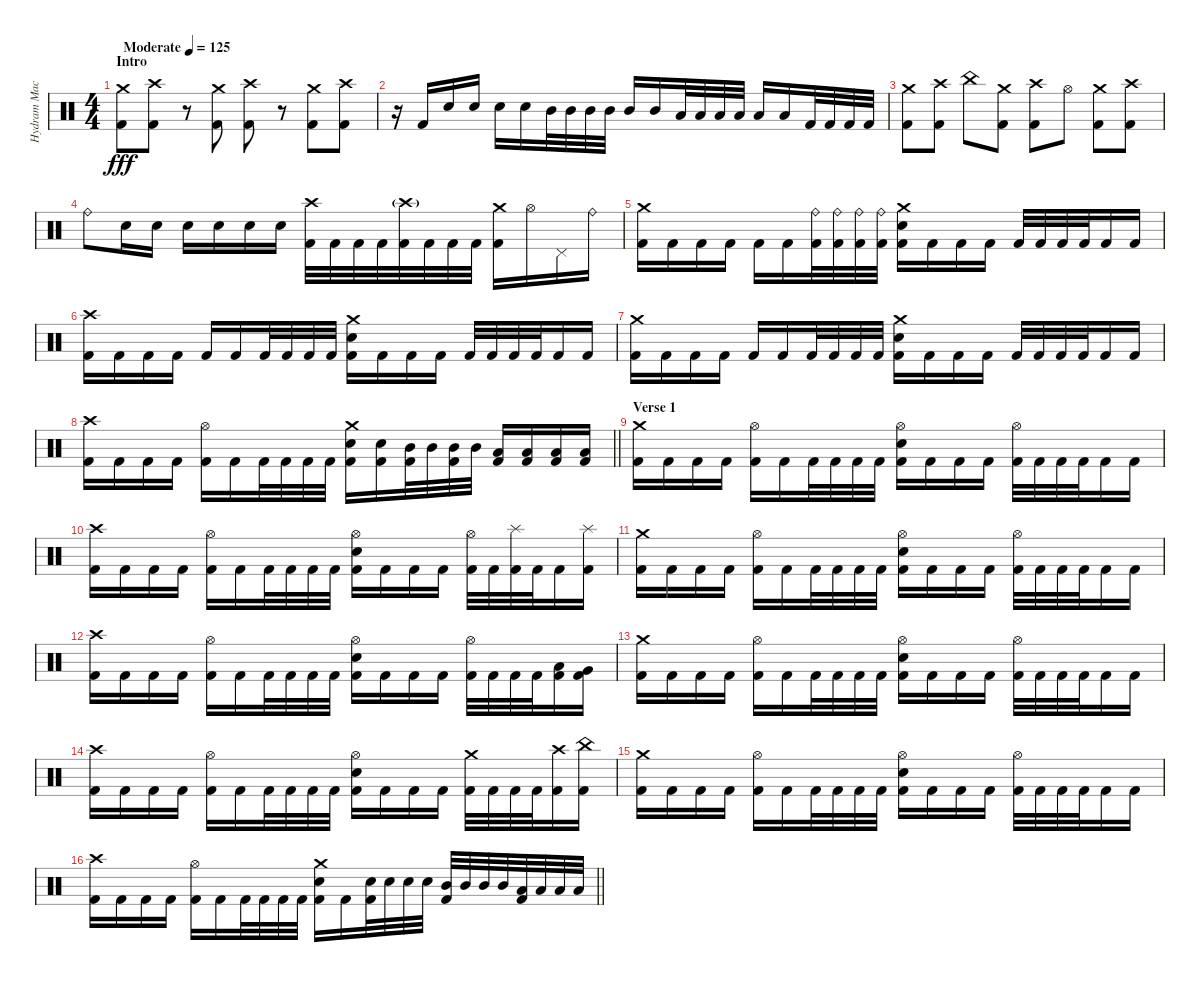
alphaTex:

\track ("Hydram Machine" "Hydram Mac") {instrument percussion}
\staff {score}
\articulation defaults
\ts (4 4)
\section ("" "Intro")
\tempo (125 "Moderate")
\clef neutral
\ks c
("Crash medium (hit)" "Kick (hit) 2").8{dy fff} ("Crash high (hit)" "Kick (hit) 2").8 r.8 ("Crash medium (hit)" "Kick (hit) 2").8 ("Crash high (hit)" "Kick (hit) 2").8 r.8 ("Crash medium (hit)" "Kick (hit) 2").8 ("Crash high (hit)" "Kick (hit) 2").8 |
r.16 "Kick (hit) 2".16 "Electric Snare (hit)".16 "Electric Snare (hit)".16 "Electric Snare (hit)".16 "Electric Snare (hit)".16 "Mid Tom (hit)".32 "Mid Tom (hit)".32 "Mid Tom (hit)".32 "Mid Tom (hit)".32 "Mid Tom (hit)".16 "Mid Tom (hit)".16 "Low Tom (hit)".32 "Low Tom (hit)".32 "Low Tom (hit)".32 "Low Tom (hit)".32 "Low Tom (hit)".16 "Low Tom (hit)".16 "Kick (hit) 2".32 "Kick (hit) 2".32 "Kick (hit) 2".32 "Kick (hit) 2".32 |
("Crash medium (hit)" "Kick (hit) 2").8 ("Crash high (hit)" "Kick (hit) 2").8 "China (hit)".8 ("Crash medium (hit)" "Kick (hit) 2").8 ("Crash high (hit)" "Kick (hit) 2").8 "Hi-Hat (open)".8 ("Crash medium (hit)" "Kick (hit) 2").8 ("Crash high (hit)" "Kick (hit) 2").8 |
"Ride (bell)".8 "Electric Snare (hit)".16 "Electric Snare (hit)".16 "Electric Snare (hit)".16 "Electric Snare (hit)".16 "Electric Snare (hit)".16 "Electric Snare (hit)".16 ("Crash high (hit)" "Kick (hit) 2").32 "Kick (hit) 2".32 "Kick (hit) 2".32 "Kick (hit) 2".32 ("Crash high (hit)"{g} "Kick (hit) 2").32 "Kick (hit) 2".32 "Kick (hit) 2".32 "Kick (hit) 2".32 ("Crash medium (hit)" "Kick (hit) 2").16 "Hi-Hat (open)".16 "Pedal Hi-Hat (hit)".16 "Ride (bell)".16 |
("Crash medium (hit)" "Kick (hit) 2").16 "Kick (hit) 2".16 "Kick (hit) 2".16 "Kick (hit) 2".16 "Kick (hit) 2".16 "Kick (hit) 2".16 ("Ride (bell)" "Kick (hit) 2").32 ("Ride (bell)" "Kick (hit) 2").32 ("Ride (bell)" "Kick (hit) 2").32 ("Ride (bell)" "Kick (hit) 2").32 ("Crash medium (hit)" "Electric Snare (hit)" "Kick (hit) 2").16 "Kick (hit) 2".16 "Kick (hit) 2".16 "Kick (hit) 2".16 "Kick (hit) 2".32 "Kick (hit) 2".32 "Kick (hit) 2".32 "Kick (hit) 2".32 "Kick (hit) 2".16 "Kick (hit) 2".16 |
("Crash high (hit)" "Kick (hit) 2").16 "Kick (hit) 2".16 "Kick (hit) 2".16 "Kick (hit) 2".16 "Kick (hit) 2".16 "Kick (hit) 2".16 "Kick (hit) 2".32 "Kick (hit) 2".32 "Kick (hit) 2".32 "Kick (hit) 2".32 ("Crash medium (hit)" "Electric Snare (hit)" "Kick (hit) 2").16 "Kick (hit) 2".16 "Kick (hit) 2".16 "Kick (hit) 2".16 "Kick (hit) 2".32 "Kick (hit) 2".32 "Kick (hit) 2".32 "Kick (hit) 2".32 "Kick (hit) 2".16 "Kick (hit) 2".16 |
("Crash medium (hit)" "Kick (hit) 2").16 "Kick (hit) 2".16 "Kick (hit) 2".16 "Kick (hit) 2".16 "Kick (hit) 2".16 "Kick (hit) 2".16 "Kick (hit) 2".32 "Kick (hit) 2".32 "Kick (hit) 2".32 "Kick (hit) 2".32 ("Crash medium (hit)" "Electric Snare (hit)" "Kick (hit) 2").16 "Kick (hit) 2".16 "Kick (hit) 2".16 "Kick (hit) 2".16 "Kick (hit) 2".32 "Kick (hit) 2".32 "Kick (hit) 2".32 "Kick (hit) 2".32 "Kick (hit) 2".16 "Kick (hit) 2".16 |
\barLineRight lightlight
("Crash high (hit)" "Kick (hit) 2").16 "Kick (hit) 2".16 "Kick (hit) 2".16 "Kick (hit) 2".16 ("Hi-Hat (open)" "Kick (hit) 2").16 "Kick (hit) 2".16 "Kick (hit) 2".32 "Kick (hit) 2".32 "Kick (hit) 2".32 "Kick (hit) 2".32 ("Crash medium (hit)" "Electric Snare (hit)" "Kick (hit) 2").16 ("Electric Snare (hit)" "Kick (hit) 2").16 ("Mid Tom (hit)" "Kick (hit) 2").32 "Mid Tom (hit)".32 ("Mid Tom (hit)" "Kick (hit) 2").32 "Mid Tom (hit)".32 ("Low Tom (hit)" "Kick (hit) 2").16 ("Low Tom (hit)" "Kick (hit) 2").16 ("Low Tom (hit)" "Kick (hit) 2").16 ("Low Tom (hit)" "Kick (hit) 2").16 |
\section ("" "Verse 1")
("Crash medium (hit)" "Kick (hit) 2").16 "Kick (hit) 2".16 "Kick (hit) 2".16 "Kick (hit) 2".16 ("Hi-Hat (open)" "Kick (hit) 2").16 "Kick (hit) 2".16 "Kick (hit) 2".32 "Kick (hit) 2".32 "Kick (hit) 2".32 "Kick (hit) 2".32 ("Hi-Hat (open)" "Electric Snare (hit)" "Kick (hit) 2").16 "Kick (hit) 2".16 "Kick (hit) 2".16 "Kick (hit) 2".16 ("Hi-Hat (open)" "Kick (hit) 2").32 "Kick (hit) 2".32 "Kick (hit) 2".32 "Kick (hit) 2".32 "Kick (hit) 2".16 "Kick (hit) 2".16 |
("Crash high (hit)" "Kick (hit) 2").16 "Kick (hit) 2".16 "Kick (hit) 2".16 "Kick (hit) 2".16 ("Hi-Hat (open)" "Kick (hit) 2").16 "Kick (hit) 2".16 "Kick (hit) 2".32 "Kick (hit) 2".32 "Kick (hit) 2".32 "Kick (hit) 2".32 ("Hi-Hat (open)" "Electric Snare (hit)" "Kick (hit) 2").16 "Kick (hit) 2".16 "Kick (hit) 2".16 "Kick (hit) 2".16 ("Hi-Hat (open)" "Kick (hit) 2").32 "Kick (hit) 2".32 ("Splash (hit)" "Kick (hit) 2").32 "Kick (hit) 2".32 "Kick (hit) 2".16 ("Splash (hit)" "Kick (hit) 2").16 |
("Crash medium (hit)" "Kick (hit) 2").16 "Kick (hit) 2".16 "Kick (hit) 2".16 "Kick (hit) 2".16 ("Hi-Hat (open)" "Kick (hit) 2").16 "Kick (hit) 2".16 "Kick (hit) 2".32 "Kick (hit) 2".32 "Kick (hit) 2".32 "Kick (hit) 2".32 ("Hi-Hat (open)" "Electric Snare (hit)" "Kick (hit) 2").16 "Kick (hit) 2".16 "Kick (hit) 2".16 "Kick (hit) 2".16 ("Hi-Hat (open)" "Kick (hit) 2").32 "Kick (hit) 2".32 "Kick (hit) 2".32 "Kick (hit) 2".32 "Kick (hit) 2".16 "Kick (hit) 2".16 |
("Crash high (hit)" "Kick (hit) 2").16 "Kick (hit) 2".16 "Kick (hit) 2".16 "Kick (hit) 2".16 ("Hi-Hat (open)" "Kick (hit) 2").16 "Kick (hit) 2".16 "Kick (hit) 2".32 "Kick (hit) 2".32 "Kick (hit) 2".32 "Kick (hit) 2".32 ("Hi-Hat (open)" "Electric Snare (hit)" "Kick (hit) 2").16 "Kick (hit) 2".16 "Kick (hit) 2".16 "Kick (hit) 2".16 ("Hi-Hat (open)" "Kick (hit) 2").32 "Kick (hit) 2".32 "Kick (hit) 2".32 "Kick (hit) 2".32 ("Low Tom (hit)" "Kick (hit) 2").16 ("Very Low Tom (hit)" "Kick (hit) 2").16 |
("Crash medium (hit)" "Kick (hit) 2").16 "Kick (hit) 2".16 "Kick (hit) 2".16 "Kick (hit) 2".16 ("Hi-Hat (open)" "Kick (hit) 2").16 "Kick (hit) 2".16 "Kick (hit) 2".32 "Kick (hit) 2".32 "Kick (hit) 2".32 "Kick (hit) 2".32 ("Hi-Hat (open)" "Electric Snare (hit)" "Kick (hit) 2").16 "Kick (hit) 2".16 "Kick (hit) 2".16 "Kick (hit) 2".16 ("Hi-Hat (open)" "Kick (hit) 2").32 "Kick (hit) 2".32 "Kick (hit) 2".32 "Kick (hit) 2".32 "Kick (hit) 2".16 "Kick (hit) 2".16 |
("Crash high (hit)" "Kick (hit) 2").16 "Kick (hit) 2".16 "Kick (hit) 2".16 "Kick (hit) 2".16 ("Hi-Hat (open)" "Kick (hit) 2").16 "Kick (hit) 2".16 "Kick (hit) 2".32 "Kick (hit) 2".32 "Kick (hit) 2".32 "Kick (hit) 2".32 ("Hi-Hat (open)" "Electric Snare (hit)" "Kick (hit) 2").16 "Kick (hit) 2".16 "Kick (hit) 2".16 "Kick (hit) 2".16 ("Crash medium (hit)" "Kick (hit) 2").32 "Kick (hit) 2".32 "Kick (hit) 2".32 "Kick (hit) 2".32 ("Crash high (hit)" "Kick (hit) 2").16 ("China (hit)" "Kick (hit) 2").16 |
("Crash medium (hit)" "Kick (hit) 2").16 "Kick (hit) 2".16 "Kick (hit) 2".16 "Kick (hit) 2".16 ("Hi-Hat (open)" "Kick (hit) 2").16 "Kick (hit) 2".16 "Kick (hit) 2".32 "Kick (hit) 2".32 "Kick (hit) 2".32 "Kick (hit) 2".32 ("Hi-Hat (open)" "Electric Snare (hit)" "Kick (hit) 2").16 "Kick (hit) 2".16 "Kick (hit) 2".16 "Kick (hit) 2".16 ("Hi-Hat (open)" "Kick (hit) 2").32 "Kick (hit) 2".32 "Kick (hit) 2".32 "Kick (hit) 2".32 "Kick (hit) 2".16 "Kick (hit) 2".16 |
\barLineRight lightlight
("Crash high (hit)" "Kick (hit) 2").16 "Kick (hit) 2".16 "Kick (hit) 2".16 "Kick (hit) 2".16 ("Hi-Hat (open)" "Kick (hit) 2").16 "Kick (hit) 2".16 "Kick (hit) 2".32 "Kick (hit) 2".32 "Kick (hit) 2".32 "Kick (hit) 2".32 ("Crash medium (hit)" "Electric Snare (hit)" "Kick (hit) 2").16 "Kick (hit) 2".16 ("Electric Snare (hit)" "Kick (hit) 2").32 "Electric Snare (hit)".32 "Electric Snare (hit)".32 "Electric Snare (hit)".32 ("Mid Tom (hit)" "Kick (hit) 2").32 "Mid Tom (hit)".32 "Mid Tom (hit)".32 "Mid Tom (hit)".32 ("Low Tom (hit)" "Kick (hit) 2").32 "Low Tom (hit)".32 "Low Tom (hit)".32 "Low Tom (hit)".32
